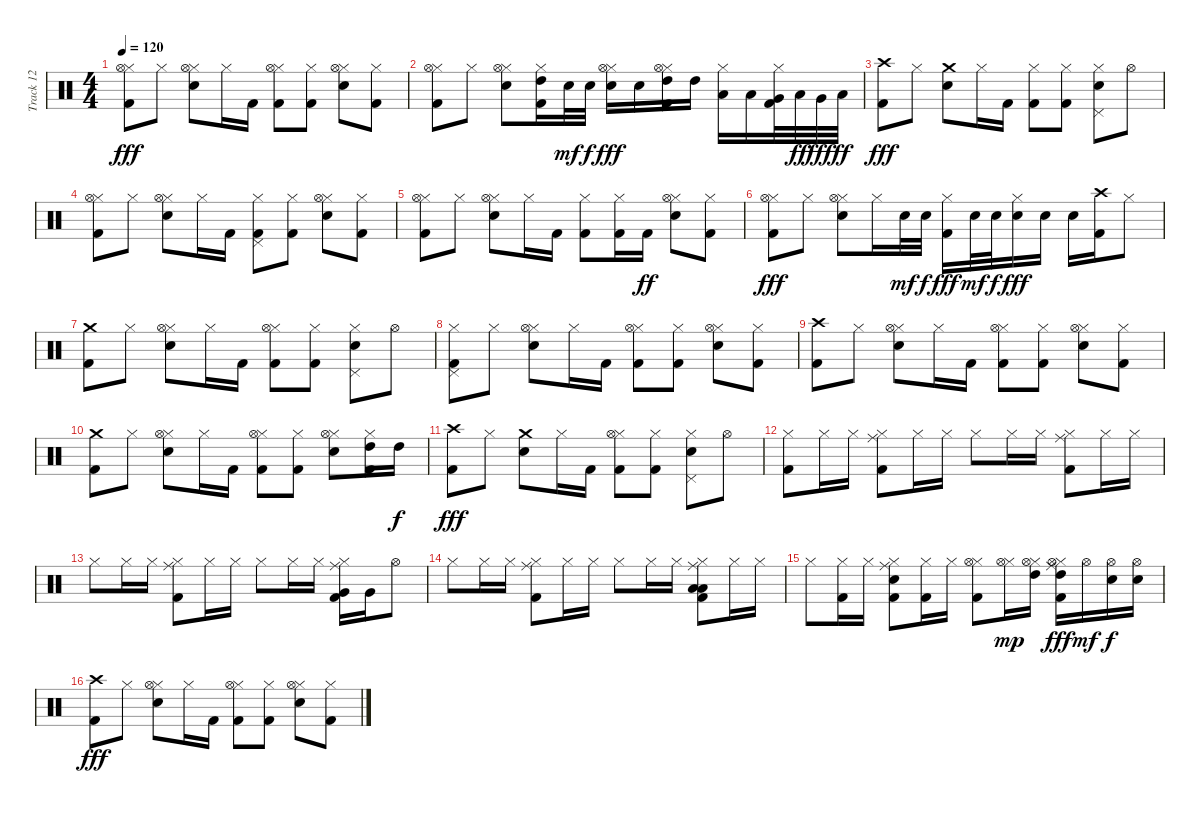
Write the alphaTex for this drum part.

\track ("Track 12" "Track 12") {instrument percussion}
\staff {score}
\articulation defaults
\ts (4 4)
\tempo 120
\clef neutral
\ks c
("Hi-Hat (closed)" "Hi-Hat (open)" "Kick (hit) 2").8{dy fff} "Hi-Hat (closed)".8 ("Hi-Hat (closed)" "Hi-Hat (open)" "Snare (hit) 2").8 "Hi-Hat (closed)".16 "Kick (hit) 2".16 ("Hi-Hat (closed)" "Hi-Hat (open)" "Kick (hit) 2").8 ("Hi-Hat (closed)" "Kick (hit) 2").8 ("Hi-Hat (closed)" "Hi-Hat (open)" "Snare (hit) 2").8 ("Hi-Hat (closed)" "Kick (hit) 2").8 |
("Hi-Hat (closed)" "Hi-Hat (open)" "Kick (hit) 2").8 "Hi-Hat (closed)".8 ("Hi-Hat (closed)" "Hi-Hat (open)" "Snare (hit) 2").8 ("Hi-Hat (closed)" "High Tom (hit)" "Kick (hit) 2").16 "Snare (hit) 2".32{dy mf} "Snare (hit) 2".32{dy f} ("Hi-Hat (closed)" "Hi-Hat (open)" "Snare (hit) 2").16{dy fff} "Snare (hit) 2".16 ("Hi-Hat (closed)" "Hi-Hat (open)" "High Tom (hit)" "Kick (hit) 2").16 "High Tom (hit)".16 ("Hi-Hat (closed)" "Low Tom (hit)").16 "Low Tom (hit)".16 ("Hi-Hat (closed)" "Very Low Tom (hit)" "Kick (hit) 2").32 "Low Floor Tom (hit)".32{dy ff} "Very Low Tom (hit)".32{dy fff} "Low Floor Tom (hit)".32{dy ff} |
("Crash high (hit)" "Kick (hit) 2").8{dy fff} "Hi-Hat (closed)".8 ("Crash medium (hit)" "Snare (hit) 2").8 "Hi-Hat (closed)".16 "Kick (hit) 2".16 ("Hi-Hat (closed)" "Kick (hit) 2").8 ("Hi-Hat (closed)" "Kick (hit) 2").8 ("Hi-Hat (closed)" "Pedal Hi-Hat (hit)" "Snare (hit) 2").8 "Hi-Hat (open)".8 |
("Hi-Hat (closed)" "Hi-Hat (open)" "Kick (hit) 2").8 "Hi-Hat (closed)".8 ("Hi-Hat (closed)" "Hi-Hat (open)" "Snare (hit) 2").8 "Hi-Hat (closed)".16 "Kick (hit) 2".16 ("Hi-Hat (closed)" "Pedal Hi-Hat (hit)" "Kick (hit) 2").8 ("Hi-Hat (closed)" "Kick (hit) 2").8 ("Hi-Hat (closed)" "Hi-Hat (open)" "Snare (hit) 2").8 ("Hi-Hat (closed)" "Kick (hit) 2").8 |
("Hi-Hat (closed)" "Hi-Hat (open)" "Kick (hit) 2").8 "Hi-Hat (closed)".8 ("Hi-Hat (closed)" "Hi-Hat (open)" "Snare (hit) 2").8 "Hi-Hat (closed)".16 "Kick (hit) 2".16 ("Hi-Hat (closed)" "Kick (hit) 2").8 ("Hi-Hat (closed)" "Kick (hit) 2").16 "Kick (hit) 2".16{dy ff} ("Hi-Hat (closed)" "Hi-Hat (open)" "Snare (hit) 2").8 ("Hi-Hat (closed)" "Kick (hit) 2").8 |
("Hi-Hat (closed)" "Hi-Hat (open)" "Kick (hit) 2").8{dy fff} "Hi-Hat (closed)".8 ("Hi-Hat (closed)" "Hi-Hat (open)" "Snare (hit) 2").8 "Hi-Hat (closed)".16 "Snare (hit) 2".32{dy mf} "Snare (hit) 2".32{dy f} ("Hi-Hat (closed)" "Kick (hit) 2").16{dy fff} "Snare (hit) 2".32{dy mf} "Snare (hit) 2".32{dy f} ("Hi-Hat (closed)" "Snare (hit) 2").16{dy fff} "Snare (hit) 2".16 "Snare (hit) 2".16 ("Crash high (hit)" "Kick (hit) 2").16 "Hi-Hat (closed)".8 |
("Crash medium (hit)" "Kick (hit) 2").8 "Hi-Hat (closed)".8 ("Hi-Hat (closed)" "Hi-Hat (open)" "Snare (hit) 2").8 "Hi-Hat (closed)".16 "Kick (hit) 2".16 ("Hi-Hat (closed)" "Hi-Hat (open)" "Kick (hit) 2").8 ("Hi-Hat (closed)" "Kick (hit) 2").8 ("Hi-Hat (closed)" "Pedal Hi-Hat (hit)" "Snare (hit) 2").8 "Hi-Hat (open)".8 |
("Hi-Hat (closed)" "Pedal Hi-Hat (hit)" "Kick (hit) 2").8 "Hi-Hat (closed)".8 ("Hi-Hat (closed)" "Hi-Hat (open)" "Snare (hit) 2").8 "Hi-Hat (closed)".16 "Kick (hit) 2".16 ("Hi-Hat (closed)" "Hi-Hat (open)" "Kick (hit) 2").8 ("Hi-Hat (closed)" "Kick (hit) 2").8 ("Hi-Hat (closed)" "Hi-Hat (open)" "Snare (hit) 2").8 ("Hi-Hat (closed)" "Kick (hit) 2").8 |
("Crash high (hit)" "Kick (hit) 2").8 "Hi-Hat (closed)".8 ("Hi-Hat (closed)" "Hi-Hat (open)" "Snare (hit) 2").8 "Hi-Hat (closed)".16 "Kick (hit) 2".16 ("Hi-Hat (closed)" "Hi-Hat (open)" "Kick (hit) 2").8 ("Hi-Hat (closed)" "Kick (hit) 2").8 ("Hi-Hat (closed)" "Hi-Hat (open)" "Snare (hit) 2").8 ("Hi-Hat (closed)" "Kick (hit) 2").8 |
("Crash medium (hit)" "Kick (hit) 2").8 "Hi-Hat (closed)".8 ("Hi-Hat (closed)" "Hi-Hat (open)" "Snare (hit) 2").8 "Hi-Hat (closed)".16 "Kick (hit) 2".16 ("Hi-Hat (closed)" "Hi-Hat (open)" "Kick (hit) 2").8 ("Hi-Hat (closed)" "Kick (hit) 2").8 ("Hi-Hat (closed)" "Hi-Hat (open)" "Snare (hit) 2").8 ("Hi-Hat (closed)" "High Tom (hit)" "Kick (hit) 2").16 "High Tom (hit)".16{dy f} |
("Crash high (hit)" "Kick (hit) 2").8{dy fff} "Hi-Hat (closed)".8 ("Crash medium (hit)" "Snare (hit) 2").8 "Hi-Hat (closed)".16 "Kick (hit) 2".16 ("Hi-Hat (closed)" "Hi-Hat (open)" "Kick (hit) 2").8 ("Hi-Hat (closed)" "Kick (hit) 2").8 ("Hi-Hat (closed)" "Pedal Hi-Hat (hit)" "Snare (hit) 2").8 "Hi-Hat (open)".8 |
("Hi-Hat (closed)" "Kick (hit) 2").8 "Hi-Hat (closed)".16 "Hi-Hat (closed)".16 ("Hi-Hat (closed)" "Ride (middle)" "Kick (hit) 2").8 "Hi-Hat (closed)".16 "Hi-Hat (closed)".16 "Hi-Hat (closed)".8 "Hi-Hat (closed)".16 "Hi-Hat (closed)".16 ("Hi-Hat (closed)" "Ride (middle)" "Kick (hit) 2").8 "Hi-Hat (closed)".16 "Hi-Hat (closed)".16 |
"Hi-Hat (closed)".8 "Hi-Hat (closed)".16 "Hi-Hat (closed)".16 ("Hi-Hat (closed)" "Ride (middle)" "Kick (hit) 2").8 "Hi-Hat (closed)".16 "Hi-Hat (closed)".16 "Hi-Hat (closed)".8 "Hi-Hat (closed)".16 "Hi-Hat (closed)".16 ("Hi-Hat (closed)" "Ride (middle)" "Very Low Tom (hit)" "Kick (hit) 2").16 "Very Low Tom (hit)".16 "Hi-Hat (open)".8 |
"Hi-Hat (closed)".8 "Hi-Hat (closed)".16 "Hi-Hat (closed)".16 ("Hi-Hat (closed)" "Ride (middle)" "Kick (hit) 2").8 "Hi-Hat (closed)".16 "Hi-Hat (closed)".16 "Hi-Hat (closed)".8 "Hi-Hat (closed)".16 "Hi-Hat (closed)".16 ("Hi-Hat (closed)" "Ride (middle)" "Low Tom (hit)" "Low Floor Tom (hit)" "Kick (hit) 2").8 "Hi-Hat (closed)".16 "Hi-Hat (closed)".16 |
"Hi-Hat (closed)".8 ("Hi-Hat (closed)" "Kick (hit) 2").16 "Hi-Hat (closed)".16 ("Hi-Hat (closed)" "Ride (middle)" "Snare (hit) 2" "Kick (hit) 2").8 ("Hi-Hat (closed)" "Kick (hit) 2").16 "Hi-Hat (closed)".16 ("Hi-Hat (closed)" "Hi-Hat (open)" "Kick (hit) 2").8 ("Hi-Hat (closed)" "Hi-Hat (open)").16{dy mp} ("Hi-Hat (closed)" "Hi-Hat (open)" "High Tom (hit)").16 ("Hi-Hat (closed)" "Ride (middle)" "Hi-Hat (open)" "High Tom (hit)" "Kick (hit) 2").16{dy fff} "Hi-Hat (open)".16{dy mf} ("Hi-Hat (open)" "Snare (hit) 2").16{dy f} ("Hi-Hat (open)" "Snare (hit) 2").16 |
("Crash high (hit)" "Kick (hit) 2").8{dy fff} "Hi-Hat (closed)".8 ("Hi-Hat (closed)" "Hi-Hat (open)" "Snare (hit) 2").8 "Hi-Hat (closed)".16 "Kick (hit) 2".16 ("Hi-Hat (closed)" "Hi-Hat (open)" "Kick (hit) 2").8 ("Hi-Hat (closed)" "Kick (hit) 2").8 ("Hi-Hat (closed)" "Hi-Hat (open)" "Snare (hit) 2").8 ("Hi-Hat (closed)" "Kick (hit) 2").8
